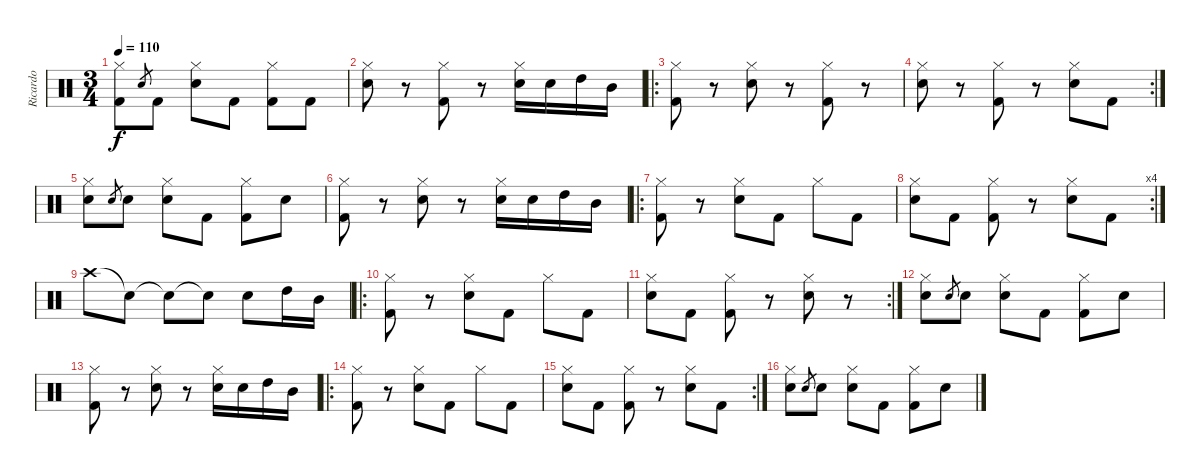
\track ("Ricardo" "Ricardo") {instrument percussion}
\staff {score}
\articulation defaults
\ts (3 4)
\tempo 110
\clef neutral
\ks c
("Hi-Hat (closed)" "Kick (hit) 2").8{dy f} "Snare (hit) 2".8{gr} "Kick (hit) 2".8 ("Hi-Hat (closed)" "Snare (hit) 2").8 "Kick (hit) 2".8 ("Hi-Hat (closed)" "Kick (hit) 2").8 "Kick (hit) 2".8 |
("Hi-Hat (closed)" "Snare (hit) 2").8 r.8 ("Hi-Hat (closed)" "Kick (hit) 2").8 r.8 ("Hi-Hat (closed)" "Snare (hit) 2").16 "Snare (hit) 2".16 "High Tom (hit)".16 "Mid Tom (hit)".16 |
\ro
("Hi-Hat (closed)" "Kick (hit) 2").8 r.8 ("Hi-Hat (closed)" "Snare (hit) 2").8 r.8 ("Hi-Hat (closed)" "Kick (hit) 2").8 r.8 |
\rc 2
("Hi-Hat (closed)" "Snare (hit) 2").8 r.8 ("Hi-Hat (closed)" "Kick (hit) 2").8 r.8 ("Hi-Hat (closed)" "Snare (hit) 2").8 "Kick (hit) 2".8 |
("Hi-Hat (closed)" "Snare (hit) 2").8 "Snare (hit) 2".8{gr} "Snare (hit) 2".8 ("Hi-Hat (closed)" "Snare (hit) 2").8 "Kick (hit) 2".8 ("Hi-Hat (closed)" "Kick (hit) 2").8 "Snare (hit) 2".8 |
("Hi-Hat (closed)" "Kick (hit) 2").8 r.8 ("Hi-Hat (closed)" "Snare (hit) 2").8 r.8 ("Hi-Hat (closed)" "Snare (hit) 2").16 "Snare (hit) 2".16 "High Tom (hit)".16 "Mid Tom (hit)".16 |
\ro
("Hi-Hat (closed)" "Kick (hit) 2").8 r.8 ("Hi-Hat (closed)" "Snare (hit) 2").8 "Kick (hit) 2".8 "Hi-Hat (closed)".8 "Kick (hit) 2".8 |
\rc 4
("Hi-Hat (closed)" "Snare (hit) 2").8 "Kick (hit) 2".8 ("Hi-Hat (closed)" "Kick (hit) 2").8 r.8 ("Hi-Hat (closed)" "Snare (hit) 2").8 "Kick (hit) 2".8 |
"Crash high (hit)".8 "Snare (hit)"{t}.8 "Snare (hit)"{t}.8 "Snare (hit)"{t}.8 "Snare (hit) 2".8 "High Tom (hit)".16 "Mid Tom (hit)".16 |
\ro
("Hi-Hat (closed)" "Kick (hit) 2").8 r.8 ("Hi-Hat (closed)" "Snare (hit) 2").8 "Kick (hit) 2".8 "Hi-Hat (closed)".8 "Kick (hit) 2".8 |
\rc 2
("Hi-Hat (closed)" "Snare (hit) 2").8 "Kick (hit) 2".8 ("Hi-Hat (closed)" "Kick (hit) 2").8 r.8 ("Hi-Hat (closed)" "Snare (hit) 2").8 r.8 |
("Hi-Hat (closed)" "Snare (hit) 2").8 "Snare (hit) 2".8{gr} "Snare (hit) 2".8 ("Hi-Hat (closed)" "Snare (hit) 2").8 "Kick (hit) 2".8 ("Hi-Hat (closed)" "Kick (hit) 2").8 "Snare (hit) 2".8 |
("Hi-Hat (closed)" "Kick (hit) 2").8 r.8 ("Hi-Hat (closed)" "Snare (hit) 2").8 r.8 ("Hi-Hat (closed)" "Snare (hit) 2").16 "Snare (hit) 2".16 "High Tom (hit)".16 "Mid Tom (hit)".16 |
\ro
("Hi-Hat (closed)" "Kick (hit) 2").8 r.8 ("Hi-Hat (closed)" "Snare (hit) 2").8 "Kick (hit) 2".8 "Hi-Hat (closed)".8 "Kick (hit) 2".8 |
\rc 2
("Hi-Hat (closed)" "Snare (hit) 2").8 "Kick (hit) 2".8 ("Hi-Hat (closed)" "Kick (hit) 2").8 r.8 ("Hi-Hat (closed)" "Snare (hit) 2").8 "Kick (hit) 2".8 |
("Hi-Hat (closed)" "Snare (hit) 2").8 "Snare (hit) 2".8{gr} "Snare (hit) 2".8 ("Hi-Hat (closed)" "Snare (hit) 2").8 "Kick (hit) 2".8 ("Hi-Hat (closed)" "Kick (hit) 2").8 "Snare (hit) 2".8
